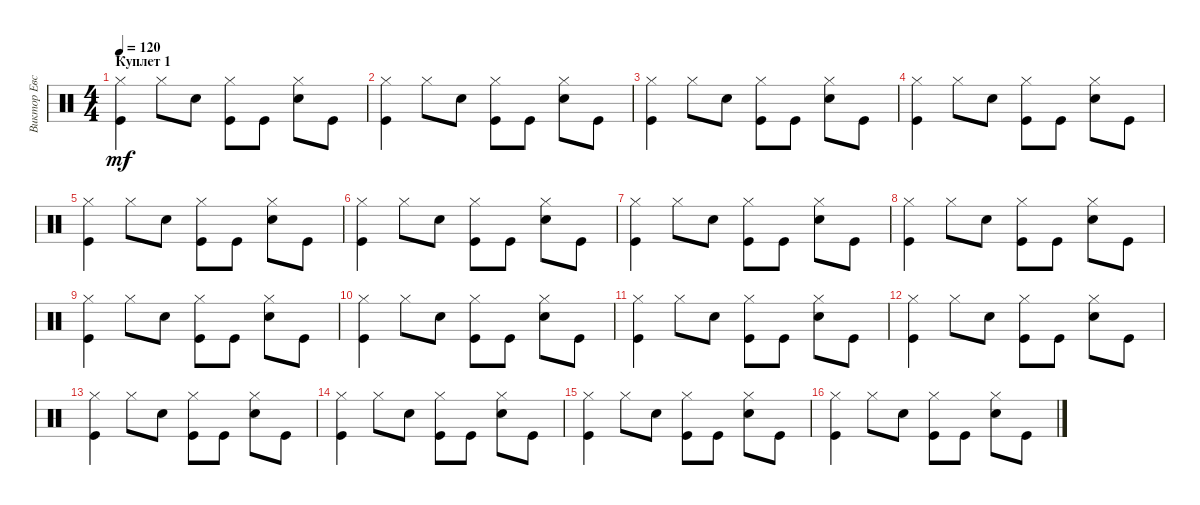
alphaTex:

\track ("Виктор Евстратов" "Виктор Евс") {instrument percussion}
\staff {score}
\articulation defaults
\ts (4 4)
\section ("" "Куплет 1")
\tempo 120
\clef neutral
\ks c
("Kick (hit)" "Hi-Hat (closed)").4{dy mf} "Hi-Hat (closed)".8 "Snare (hit) 2".8 ("Hi-Hat (closed)" "Kick (hit)").8 "Kick (hit)".8 ("Hi-Hat (closed)" "Snare (hit) 2").8 "Kick (hit)".8 |
("Kick (hit)" "Hi-Hat (closed)").4 "Hi-Hat (closed)".8 "Snare (hit) 2".8 ("Hi-Hat (closed)" "Kick (hit)").8 "Kick (hit)".8 ("Hi-Hat (closed)" "Snare (hit) 2").8 "Kick (hit)".8 |
("Kick (hit)" "Hi-Hat (closed)").4 "Hi-Hat (closed)".8 "Snare (hit) 2".8 ("Hi-Hat (closed)" "Kick (hit)").8 "Kick (hit)".8 ("Hi-Hat (closed)" "Snare (hit) 2").8 "Kick (hit)".8 |
("Kick (hit)" "Hi-Hat (closed)").4 "Hi-Hat (closed)".8 "Snare (hit) 2".8 ("Hi-Hat (closed)" "Kick (hit)").8 "Kick (hit)".8 ("Hi-Hat (closed)" "Snare (hit) 2").8 "Kick (hit)".8 |
("Kick (hit)" "Hi-Hat (closed)").4 "Hi-Hat (closed)".8 "Snare (hit) 2".8 ("Hi-Hat (closed)" "Kick (hit)").8 "Kick (hit)".8 ("Hi-Hat (closed)" "Snare (hit) 2").8 "Kick (hit)".8 |
("Kick (hit)" "Hi-Hat (closed)").4 "Hi-Hat (closed)".8 "Snare (hit) 2".8 ("Hi-Hat (closed)" "Kick (hit)").8 "Kick (hit)".8 ("Hi-Hat (closed)" "Snare (hit) 2").8 "Kick (hit)".8 |
("Kick (hit)" "Hi-Hat (closed)").4 "Hi-Hat (closed)".8 "Snare (hit) 2".8 ("Hi-Hat (closed)" "Kick (hit)").8 "Kick (hit)".8 ("Hi-Hat (closed)" "Snare (hit) 2").8 "Kick (hit)".8 |
("Kick (hit)" "Hi-Hat (closed)").4 "Hi-Hat (closed)".8 "Snare (hit) 2".8 ("Hi-Hat (closed)" "Kick (hit)").8 "Kick (hit)".8 ("Hi-Hat (closed)" "Snare (hit) 2").8 "Kick (hit)".8 |
("Kick (hit)" "Hi-Hat (closed)").4 "Hi-Hat (closed)".8 "Snare (hit) 2".8 ("Hi-Hat (closed)" "Kick (hit)").8 "Kick (hit)".8 ("Hi-Hat (closed)" "Snare (hit) 2").8 "Kick (hit)".8 |
("Kick (hit)" "Hi-Hat (closed)").4 "Hi-Hat (closed)".8 "Snare (hit) 2".8 ("Hi-Hat (closed)" "Kick (hit)").8 "Kick (hit)".8 ("Hi-Hat (closed)" "Snare (hit) 2").8 "Kick (hit)".8 |
("Kick (hit)" "Hi-Hat (closed)").4 "Hi-Hat (closed)".8 "Snare (hit) 2".8 ("Hi-Hat (closed)" "Kick (hit)").8 "Kick (hit)".8 ("Hi-Hat (closed)" "Snare (hit) 2").8 "Kick (hit)".8 |
("Kick (hit)" "Hi-Hat (closed)").4 "Hi-Hat (closed)".8 "Snare (hit) 2".8 ("Hi-Hat (closed)" "Kick (hit)").8 "Kick (hit)".8 ("Hi-Hat (closed)" "Snare (hit) 2").8 "Kick (hit)".8 |
("Kick (hit)" "Hi-Hat (closed)").4 "Hi-Hat (closed)".8 "Snare (hit) 2".8 ("Hi-Hat (closed)" "Kick (hit)").8 "Kick (hit)".8 ("Hi-Hat (closed)" "Snare (hit) 2").8 "Kick (hit)".8 |
("Kick (hit)" "Hi-Hat (closed)").4 "Hi-Hat (closed)".8 "Snare (hit) 2".8 ("Hi-Hat (closed)" "Kick (hit)").8 "Kick (hit)".8 ("Hi-Hat (closed)" "Snare (hit) 2").8 "Kick (hit)".8 |
("Kick (hit)" "Hi-Hat (closed)").4 "Hi-Hat (closed)".8 "Snare (hit) 2".8 ("Hi-Hat (closed)" "Kick (hit)").8 "Kick (hit)".8 ("Hi-Hat (closed)" "Snare (hit) 2").8 "Kick (hit)".8 |
("Kick (hit)" "Hi-Hat (closed)").4 "Hi-Hat (closed)".8 "Snare (hit) 2".8 ("Hi-Hat (closed)" "Kick (hit)").8 "Kick (hit)".8 ("Hi-Hat (closed)" "Snare (hit) 2").8 "Kick (hit)".8
